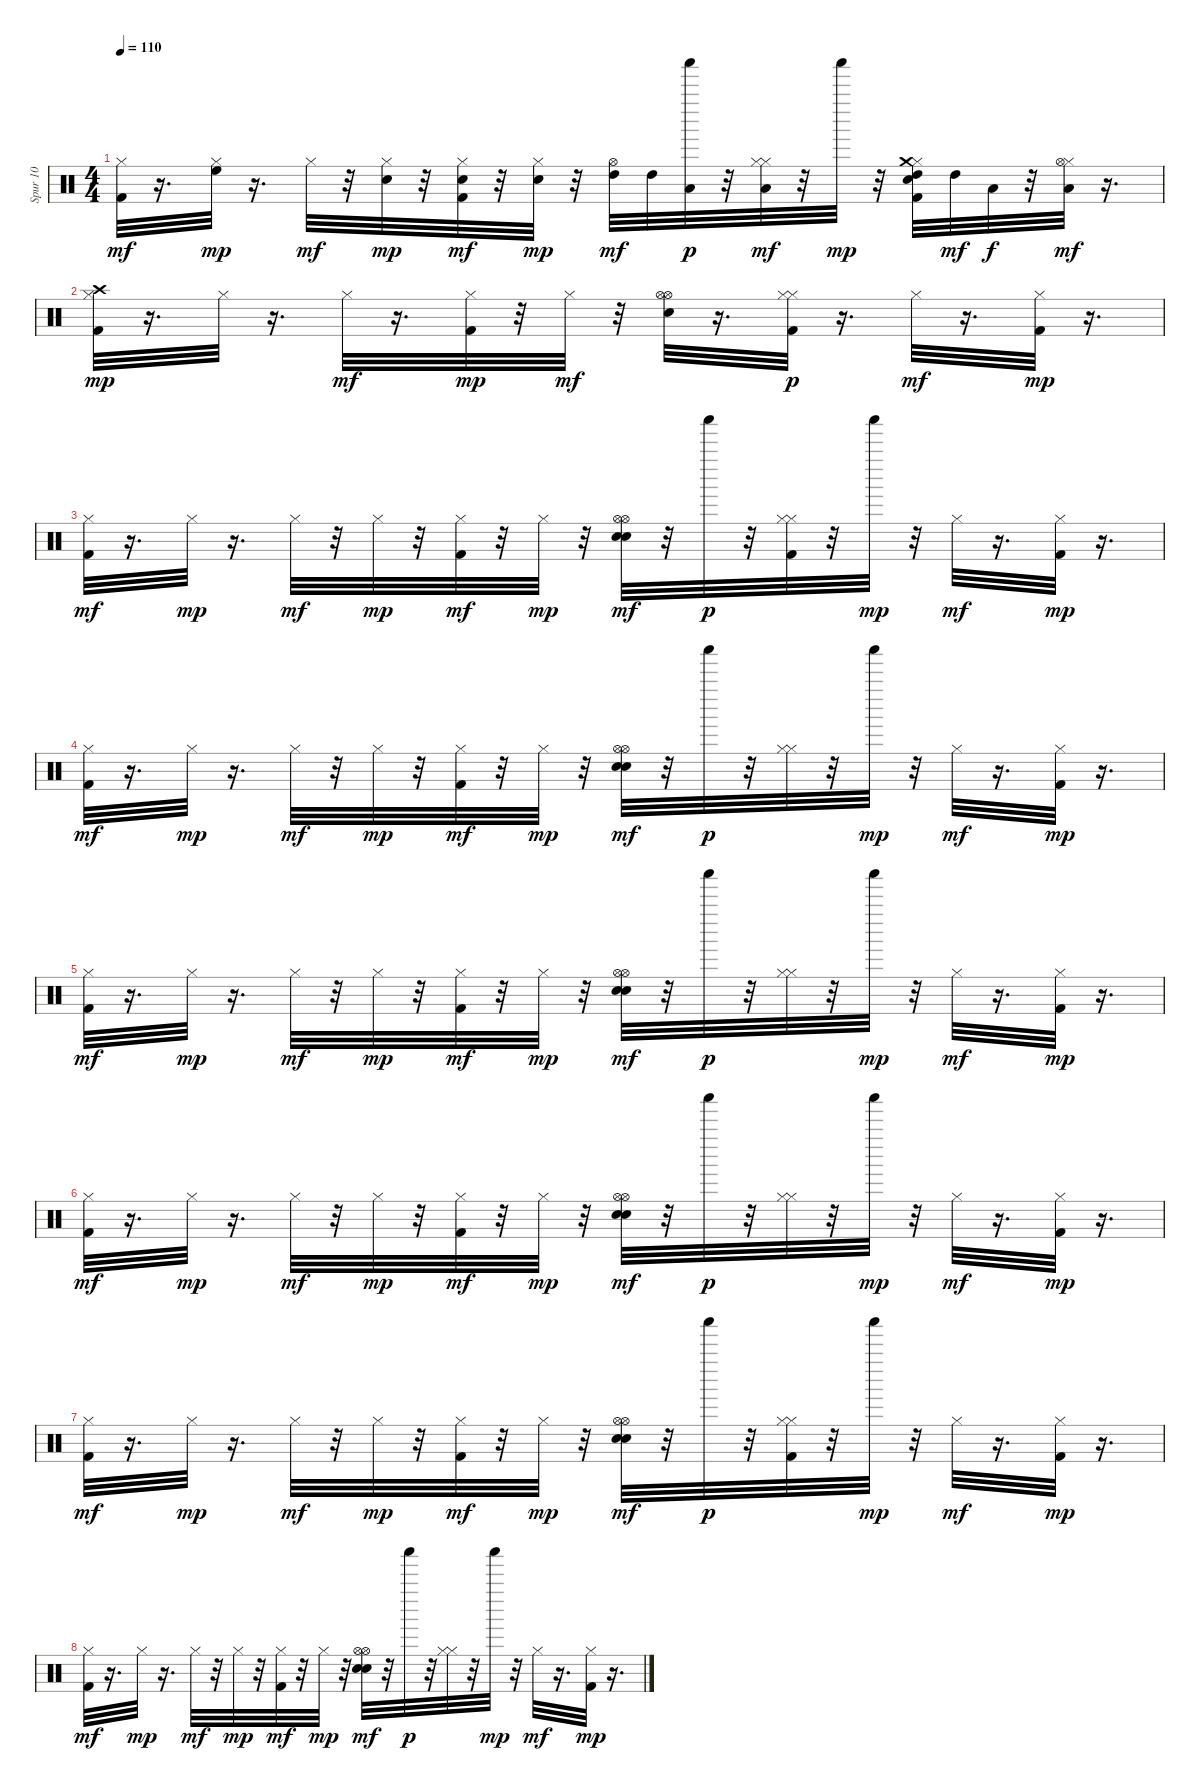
\track ("Spur 10" "Spur 10") {instrument percussion}
\staff {score}
\articulation defaults
\ts (4 4)
\tempo 110
\clef neutral
\ks c
("Kick (hit) 2" "Hi-Hat (closed)").32{dy mf} r.16{d} ("Hi-Hat (closed)" "High Floor Tom (hit)").32{dy mp} r.16{d} "Hi-Hat (closed)".32{dy mf} r.32 ("Snare (hit) 2" "Hi-Hat (closed)").32{dy mp} r.32 ("Kick (hit) 2" "Snare (hit) 2" "Hi-Hat (closed)").32{dy mf} r.32 ("Snare (hit) 2" "Hi-Hat (closed)").32{dy mp} r.32 ("Hi-Hat (open)" "High Tom (hit)").32{dy mf} "High Tom (hit)".32 ("Low Tom (hit)" "Shaker (hit)").32{dy p} r.32 ("Hi-Hat (closed)" "Hi-Hat (closed)" "Low Floor Tom (hit)").32{dy mf} r.32 "Shaker (hit)".32{dy mp} r.32 ("Kick (hit) 2" "Snare (hit) 2" "Hi-Hat (closed)" "Crash medium (hit)" "High Tom (hit)").32 "High Tom (hit)".32{dy mf} "Low Tom (hit)".32{dy f} r.32 ("Hi-Hat (closed)" "Hi-Hat (open)" "Low Floor Tom (hit)").32{dy mf} r.16{d} |
("Kick (hit) 2" "Hi-Hat (closed)" "Crash high (hit)").32{dy mp} r.16{d} "Hi-Hat (closed)".32 r.16{d} "Hi-Hat (closed)".32{dy mf} r.16{d} ("Kick (hit) 2" "Hi-Hat (closed)").32{dy mp} r.32 "Hi-Hat (closed)".32{dy mf} r.32 ("Hi-Hat (open)" "Snare (hit) 2" "Hi-Hat (open)").32 r.16{d} ("Kick (hit) 2" "Hi-Hat (closed)" "Hi-Hat (closed)").32{dy p} r.16{d} "Hi-Hat (closed)".32{dy mf} r.16{d} ("Kick (hit) 2" "Hi-Hat (closed)").32{dy mp} r.16{d} |
("Kick (hit) 2" "Hi-Hat (closed)").32{dy mf} r.16{d} "Hi-Hat (closed)".32{dy mp} r.16{d} "Hi-Hat (closed)".32{dy mf} r.32 "Hi-Hat (closed)".32{dy mp} r.32 ("Kick (hit) 2" "Hi-Hat (closed)").32{dy mf} r.32 "Hi-Hat (closed)".32{dy mp} r.32 ("Hi-Hat (open)" "Snare (hit) 2" "Electric Snare (hit)" "Hi-Hat (open)").32{dy mf} r.32 "Shaker (hit)".32{dy p} r.32 ("Kick (hit) 2" "Hi-Hat (closed)" "Hi-Hat (closed)").32 r.32 "Shaker (hit)".32{dy mp} r.32 "Hi-Hat (closed)".32{dy mf} r.16{d} ("Kick (hit) 2" "Hi-Hat (closed)").32{dy mp} r.16{d} |
("Kick (hit) 2" "Hi-Hat (closed)").32{dy mf} r.16{d} "Hi-Hat (closed)".32{dy mp} r.16{d} "Hi-Hat (closed)".32{dy mf} r.32 "Hi-Hat (closed)".32{dy mp} r.32 ("Kick (hit) 2" "Hi-Hat (closed)").32{dy mf} r.32 "Hi-Hat (closed)".32{dy mp} r.32 ("Hi-Hat (open)" "Snare (hit) 2" "Electric Snare (hit)" "Hi-Hat (open)").32{dy mf} r.32 "Shaker (hit)".32{dy p} r.32 ("Hi-Hat (closed)" "Hi-Hat (closed)").32 r.32 "Shaker (hit)".32{dy mp} r.32 "Hi-Hat (closed)".32{dy mf} r.16{d} ("Kick (hit) 2" "Hi-Hat (closed)").32{dy mp} r.16{d} |
("Kick (hit) 2" "Hi-Hat (closed)").32{dy mf} r.16{d} "Hi-Hat (closed)".32{dy mp} r.16{d} "Hi-Hat (closed)".32{dy mf} r.32 "Hi-Hat (closed)".32{dy mp} r.32 ("Kick (hit) 2" "Hi-Hat (closed)").32{dy mf} r.32 "Hi-Hat (closed)".32{dy mp} r.32 ("Hi-Hat (open)" "Snare (hit) 2" "Electric Snare (hit)" "Hi-Hat (open)").32{dy mf} r.32 "Shaker (hit)".32{dy p} r.32 ("Hi-Hat (closed)" "Hi-Hat (closed)").32 r.32 "Shaker (hit)".32{dy mp} r.32 "Hi-Hat (closed)".32{dy mf} r.16{d} ("Kick (hit) 2" "Hi-Hat (closed)").32{dy mp} r.16{d} |
("Kick (hit) 2" "Hi-Hat (closed)").32{dy mf} r.16{d} "Hi-Hat (closed)".32{dy mp} r.16{d} "Hi-Hat (closed)".32{dy mf} r.32 "Hi-Hat (closed)".32{dy mp} r.32 ("Kick (hit) 2" "Hi-Hat (closed)").32{dy mf} r.32 "Hi-Hat (closed)".32{dy mp} r.32 ("Hi-Hat (open)" "Snare (hit) 2" "Electric Snare (hit)" "Hi-Hat (open)").32{dy mf} r.32 "Shaker (hit)".32{dy p} r.32 ("Hi-Hat (closed)" "Hi-Hat (closed)").32 r.32 "Shaker (hit)".32{dy mp} r.32 "Hi-Hat (closed)".32{dy mf} r.16{d} ("Kick (hit) 2" "Hi-Hat (closed)").32{dy mp} r.16{d} |
("Kick (hit) 2" "Hi-Hat (closed)").32{dy mf} r.16{d} "Hi-Hat (closed)".32{dy mp} r.16{d} "Hi-Hat (closed)".32{dy mf} r.32 "Hi-Hat (closed)".32{dy mp} r.32 ("Kick (hit) 2" "Hi-Hat (closed)").32{dy mf} r.32 "Hi-Hat (closed)".32{dy mp} r.32 ("Hi-Hat (open)" "Snare (hit) 2" "Electric Snare (hit)" "Hi-Hat (open)").32{dy mf} r.32 "Shaker (hit)".32{dy p} r.32 ("Kick (hit) 2" "Hi-Hat (closed)" "Hi-Hat (closed)").32 r.32 "Shaker (hit)".32{dy mp} r.32 "Hi-Hat (closed)".32{dy mf} r.16{d} ("Kick (hit) 2" "Hi-Hat (closed)").32{dy mp} r.16{d} |
("Kick (hit) 2" "Hi-Hat (closed)").32{dy mf} r.16{d} "Hi-Hat (closed)".32{dy mp} r.16{d} "Hi-Hat (closed)".32{dy mf} r.32 "Hi-Hat (closed)".32{dy mp} r.32 ("Kick (hit) 2" "Hi-Hat (closed)").32{dy mf} r.32 "Hi-Hat (closed)".32{dy mp} r.32 ("Hi-Hat (open)" "Snare (hit) 2" "Electric Snare (hit)" "Hi-Hat (open)").32{dy mf} r.32 "Shaker (hit)".32{dy p} r.32 ("Hi-Hat (closed)" "Hi-Hat (closed)").32 r.32 "Shaker (hit)".32{dy mp} r.32 "Hi-Hat (closed)".32{dy mf} r.16{d} ("Kick (hit) 2" "Hi-Hat (closed)").32{dy mp} r.16{d}
